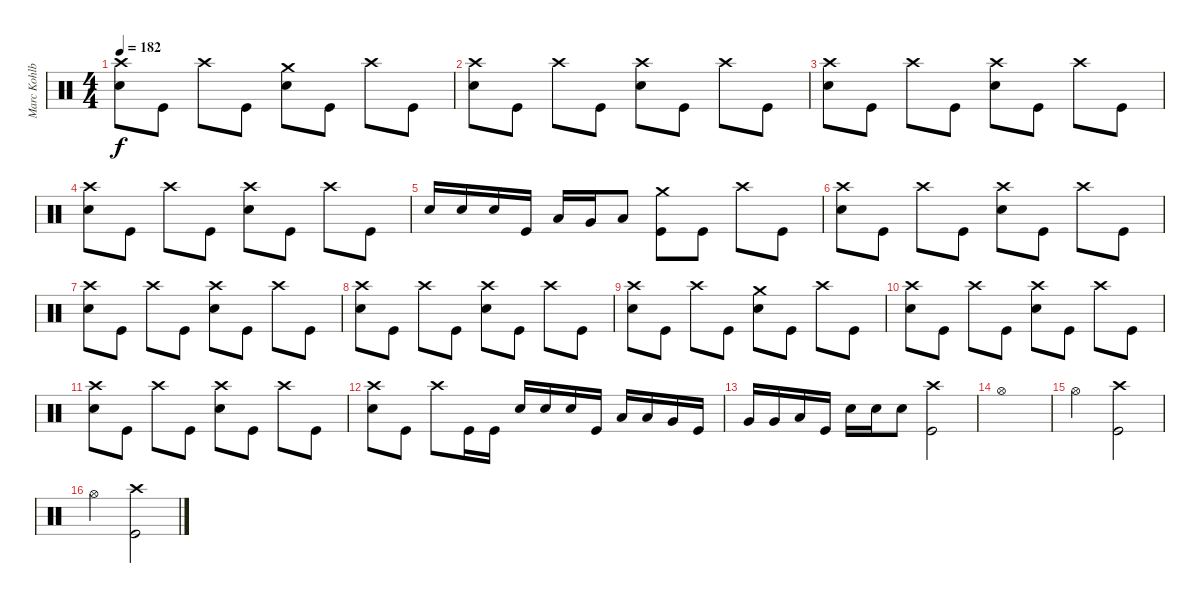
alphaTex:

\track ("Marc Kohlbry" "Marc Kohlb") {instrument percussion}
\staff {score}
\articulation defaults
\ts (4 4)
\tempo 182
\clef neutral
\ks c
("Crash high (hit)" "Electric Snare (hit)").8{dy f} "Kick (hit)".8 "Crash high (hit)".8 "Kick (hit)".8 ("Crash medium (hit)" "Electric Snare (hit)").8 "Kick (hit)".8 "Crash high (hit)".8 "Kick (hit)".8 |
("Crash high (hit)" "Electric Snare (hit)").8 "Kick (hit)".8 "Crash high (hit)".8 "Kick (hit)".8 ("Crash high (hit)" "Electric Snare (hit)").8 "Kick (hit)".8 "Crash high (hit)".8 "Kick (hit)".8 |
("Crash high (hit)" "Electric Snare (hit)").8 "Kick (hit)".8 "Crash high (hit)".8 "Kick (hit)".8 ("Crash high (hit)" "Electric Snare (hit)").8 "Kick (hit)".8 "Crash high (hit)".8 "Kick (hit)".8 |
("Crash high (hit)" "Electric Snare (hit)").8 "Kick (hit)".8 "Crash high (hit)".8 "Kick (hit)".8 ("Crash high (hit)" "Electric Snare (hit)").8 "Kick (hit)".8 "Crash high (hit)".8 "Kick (hit)".8 |
"Electric Snare (hit)".16 "Electric Snare (hit)".16 "Electric Snare (hit)".16 "Kick (hit)".16 "Low Tom (hit)".16 "Very Low Tom (hit)".16 "Low Floor Tom (hit)".8 ("Crash medium (hit)" "Kick (hit)").8 "Kick (hit)".8 "Crash high (hit)".8 "Kick (hit)".8 |
("Crash high (hit)" "Electric Snare (hit)").8 "Kick (hit)".8 "Crash high (hit)".8 "Kick (hit)".8 ("Crash high (hit)" "Electric Snare (hit)").8 "Kick (hit)".8 "Crash high (hit)".8 "Kick (hit)".8 |
("Crash high (hit)" "Electric Snare (hit)").8 "Kick (hit)".8 "Crash high (hit)".8 "Kick (hit)".8 ("Crash high (hit)" "Electric Snare (hit)").8 "Kick (hit)".8 "Crash high (hit)".8 "Kick (hit)".8 |
("Crash high (hit)" "Electric Snare (hit)").8 "Kick (hit)".8 "Crash high (hit)".8 "Kick (hit)".8 ("Crash high (hit)" "Electric Snare (hit)").8 "Kick (hit)".8 "Crash high (hit)".8 "Kick (hit)".8 |
("Crash high (hit)" "Electric Snare (hit)").8 "Kick (hit)".8 "Crash high (hit)".8 "Kick (hit)".8 ("Crash medium (hit)" "Electric Snare (hit)").8 "Kick (hit)".8 "Crash high (hit)".8 "Kick (hit)".8 |
("Crash high (hit)" "Electric Snare (hit)").8 "Kick (hit)".8 "Crash high (hit)".8 "Kick (hit)".8 ("Crash high (hit)" "Electric Snare (hit)").8 "Kick (hit)".8 "Crash high (hit)".8 "Kick (hit)".8 |
("Crash high (hit)" "Electric Snare (hit)").8 "Kick (hit)".8 "Crash high (hit)".8 "Kick (hit)".8 ("Crash high (hit)" "Electric Snare (hit)").8 "Kick (hit)".8 "Crash high (hit)".8 "Kick (hit)".8 |
("Crash high (hit)" "Electric Snare (hit)").8 "Kick (hit)".8 "Crash high (hit)".8 "Kick (hit)".16 "Kick (hit)".16 "Electric Snare (hit)".16 "Electric Snare (hit)".16 "Electric Snare (hit)".16 "Kick (hit)".16 "Low Tom (hit)".16 "Low Tom (hit)".16 "Very Low Tom (hit)".16 "Kick (hit)".16 |
"Very Low Tom (hit)".16 "Very Low Tom (hit)".16 "Low Floor Tom (hit)".16 "Kick (hit)".16 "Electric Snare (hit)".16 "Electric Snare (hit)".16 "Electric Snare (hit)".8 ("Crash high (hit)" "Kick (hit)").2 |
"Hi-Hat (open)".1 |
"Hi-Hat (open)".2 ("Crash high (hit)" "Kick (hit)").2 |
"Hi-Hat (open)".2 ("Crash high (hit)" "Kick (hit)").2
